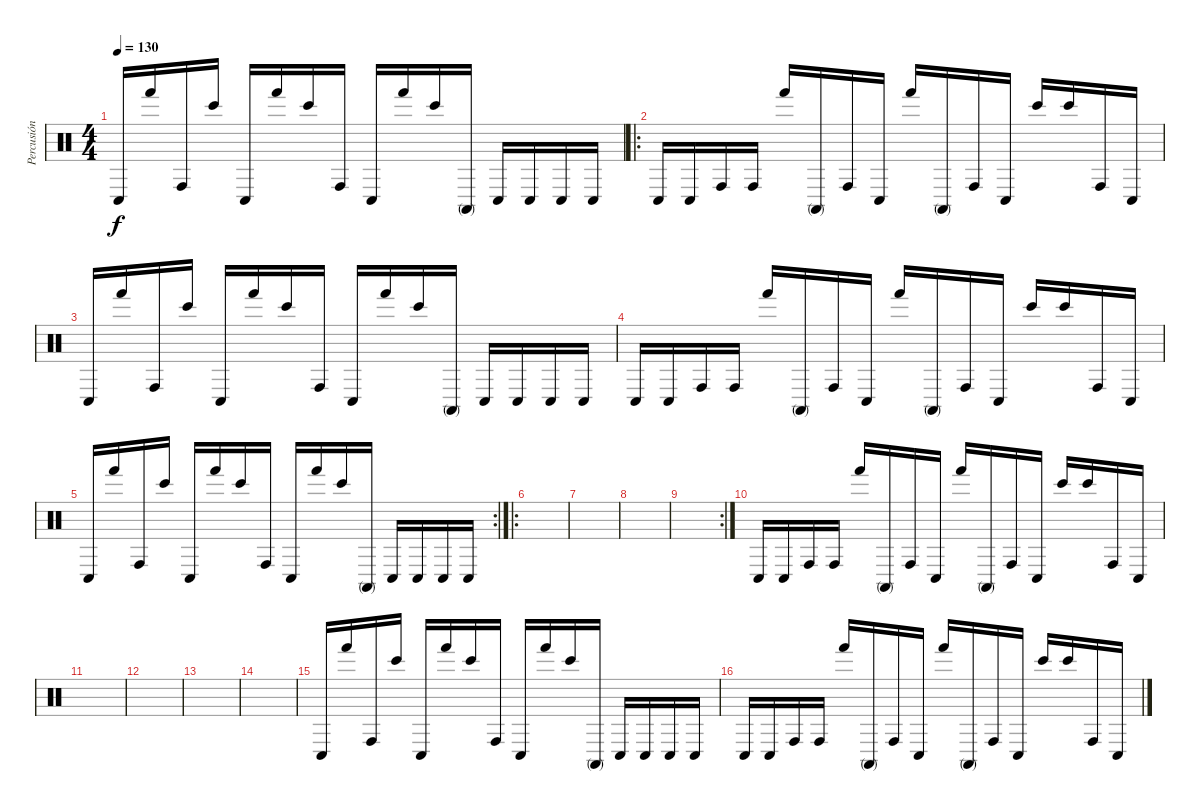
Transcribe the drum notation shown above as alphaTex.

\track ("Percusión" "Percusión") {instrument percussion}
\staff {score}
\articulation defaults
\ts (4 4)
\tempo 130
\clef neutral
\ks c "Conga low (hit)".16{dy f} "Hand (hit)".16 "Conga high (hit)".16 "Bongo High (hit)".16 "Conga low (hit)".16 "Hand (hit)".16 "Bongo High (hit)".16 "Conga high (hit)".16 "Conga low (hit)".16 "Hand (hit)".16 "Bongo High (hit)".16 "Conga high (mute)".16 "Conga low (hit)".16 "Conga low (hit)".16 "Conga low (hit)".16 "Conga low (hit)".16
|
\ro "Conga low (hit)".16 "Conga low (hit)".16 "Conga high (hit)".16 "Conga high (hit)".16 "Hand (hit)".16 "Conga high (mute)".16 "Conga high (hit)".16 "Conga low (hit)".16 "Hand (hit)".16 "Conga high (mute)".16 "Conga high (hit)".16 "Conga low (hit)".16 "Bongo High (hit)".16 "Bongo High (hit)".16 "Conga high (hit)".16 "Conga low (hit)".16
|
"Conga low (hit)".16 "Hand (hit)".16 "Conga high (hit)".16 "Bongo High (hit)".16 "Conga low (hit)".16 "Hand (hit)".16 "Bongo High (hit)".16 "Conga high (hit)".16 "Conga low (hit)".16 "Hand (hit)".16 "Bongo High (hit)".16 "Conga high (mute)".16 "Conga low (hit)".16 "Conga low (hit)".16 "Conga low (hit)".16 "Conga low (hit)".16 |
"Conga low (hit)".16 "Conga low (hit)".16 "Conga high (hit)".16 "Conga high (hit)".16 "Hand (hit)".16 "Conga high (mute)".16 "Conga high (hit)".16 "Conga low (hit)".16 "Hand (hit)".16 "Conga high (mute)".16 "Conga high (hit)".16 "Conga low (hit)".16 "Bongo High (hit)".16 "Bongo High (hit)".16 "Conga high (hit)".16 "Conga low (hit)".16 |
\rc 2 "Conga low (hit)".16 "Hand (hit)".16 "Conga high (hit)".16 "Bongo High (hit)".16 "Conga low (hit)".16 "Hand (hit)".16 "Bongo High (hit)".16 "Conga high (hit)".16 "Conga low (hit)".16 "Hand (hit)".16 "Bongo High (hit)".16 "Conga high (mute)".16 "Conga low (hit)".16 "Conga low (hit)".16 "Conga low (hit)".16 "Conga low (hit)".16
|
\ro
|
|
|
\rc 2
|
"Conga low (hit)".16 "Conga low (hit)".16 "Conga high (hit)".16 "Conga high (hit)".16 "Hand (hit)".16 "Conga high (mute)".16 "Conga high (hit)".16 "Conga low (hit)".16 "Hand (hit)".16 "Conga high (mute)".16 "Conga high (hit)".16 "Conga low (hit)".16 "Bongo High (hit)".16 "Bongo High (hit)".16 "Conga high (hit)".16 "Conga low (hit)".16 |
|
|
|
|
"Conga low (hit)".16 "Hand (hit)".16 "Conga high (hit)".16 "Bongo High (hit)".16 "Conga low (hit)".16 "Hand (hit)".16 "Bongo High (hit)".16 "Conga high (hit)".16 "Conga low (hit)".16 "Hand (hit)".16 "Bongo High (hit)".16 "Conga high (mute)".16 "Conga low (hit)".16 "Conga low (hit)".16 "Conga low (hit)".16 "Conga low (hit)".16 |
"Conga low (hit)".16 "Conga low (hit)".16 "Conga high (hit)".16 "Conga high (hit)".16 "Hand (hit)".16 "Conga high (mute)".16 "Conga high (hit)".16 "Conga low (hit)".16 "Hand (hit)".16 "Conga high (mute)".16 "Conga high (hit)".16 "Conga low (hit)".16 "Bongo High (hit)".16 "Bongo High (hit)".16 "Conga high (hit)".16 "Conga low (hit)".16
